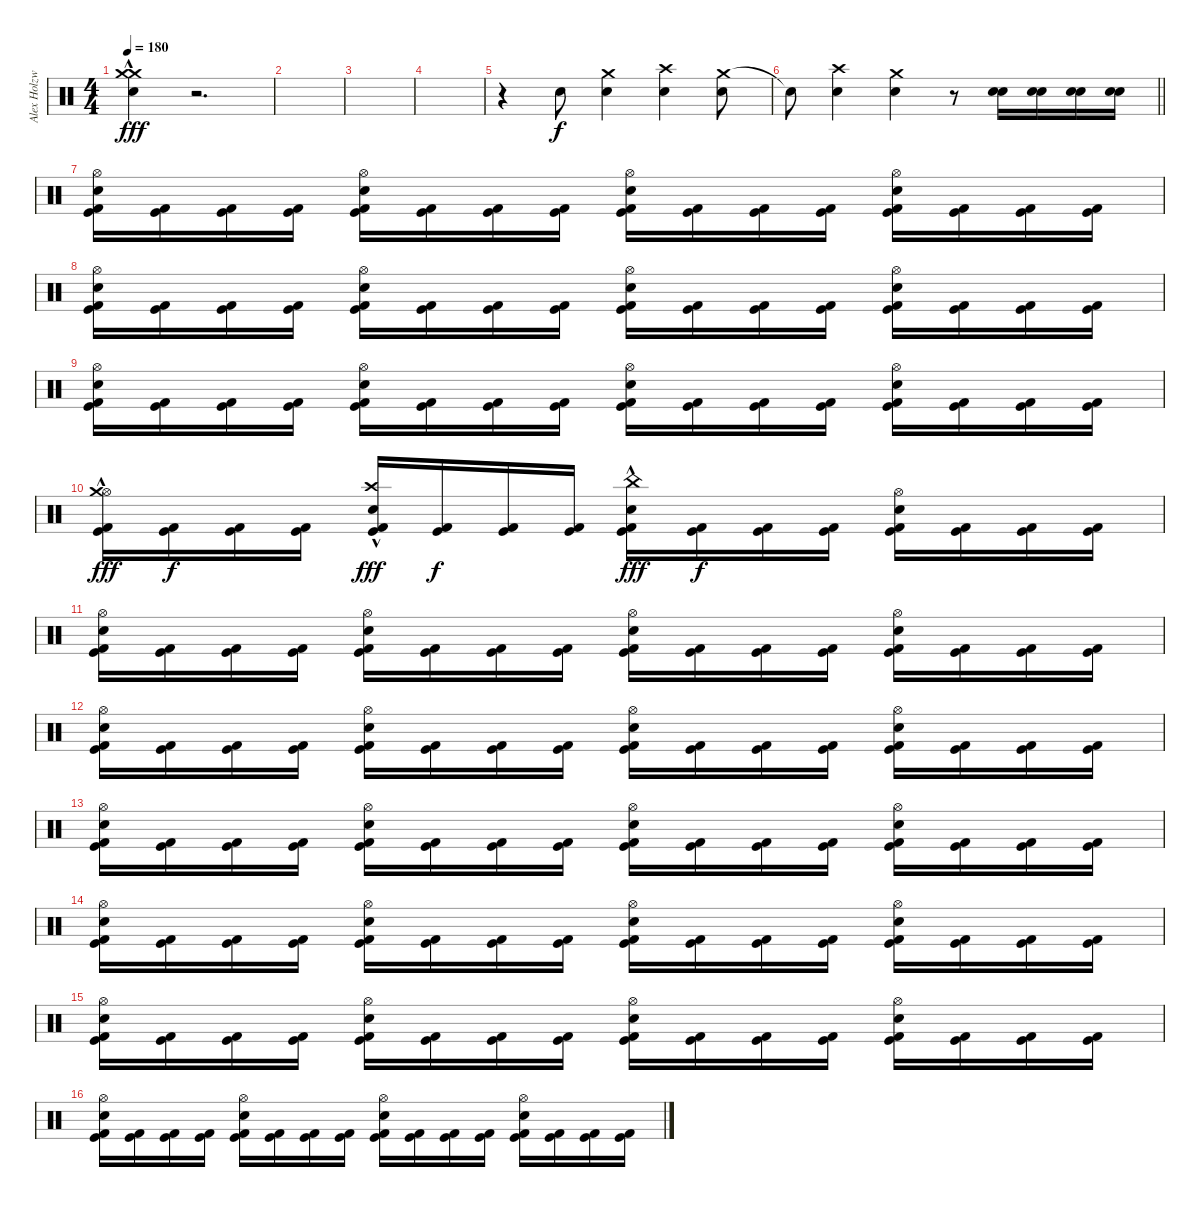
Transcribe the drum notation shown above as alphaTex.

\track ("Alex Holzwarth" "Alex Holzw") {instrument percussion}
\staff {score}
\articulation defaults
\ts (4 4)
\tempo 180
\clef neutral
\ks c
("Crash medium (hit)"{hac} "Snare (hit) 2" "Crash medium (hit)"{hac}).4{dy fff volume 13} r.2{d volume 0} |
|
|
|
r.4 "Snare (hit) 2".8{dy f} ("Crash medium (hit)" "Snare (hit) 2").4 ("Crash high (hit)" "Snare (hit) 2").4 ("Crash medium (hit)" "Snare (hit) 2").8 |
\barLineRight lightlight "Snare (hit)"{t}.8
("Crash high (hit)" "Snare (hit) 2").4 ("Crash medium (hit)" "Snare (hit) 2").4 r.8 ("Snare (hit) 2" "Electric Snare (hit)").16 ("Snare (hit) 2" "Electric Snare (hit)").16 ("Snare (hit) 2" "Electric Snare (hit)").16 ("Snare (hit) 2" "Electric Snare (hit)").16 |
("Kick (hit) 2" "Kick (hit)" "Snare (hit) 2" "Hi-Hat (open)").16 ("Kick (hit) 2" "Kick (hit)").16 ("Kick (hit) 2" "Kick (hit)").16 ("Kick (hit) 2" "Kick (hit)").16 ("Kick (hit) 2" "Kick (hit)" "Hi-Hat (open)" "Snare (hit) 2").16 ("Kick (hit) 2" "Kick (hit)").16 ("Kick (hit) 2" "Kick (hit)").16 ("Kick (hit) 2" "Kick (hit)").16 ("Kick (hit) 2" "Kick (hit)" "Hi-Hat (open)" "Snare (hit) 2").16 ("Kick (hit) 2" "Kick (hit)").16 ("Kick (hit) 2" "Kick (hit)").16 ("Kick (hit) 2" "Kick (hit)").16 ("Kick (hit) 2" "Kick (hit)" "Hi-Hat (open)" "Snare (hit) 2").16 ("Kick (hit) 2" "Kick (hit)").16 ("Kick (hit) 2" "Kick (hit)").16 ("Kick (hit) 2" "Kick (hit)").16 |
("Kick (hit) 2" "Kick (hit)" "Snare (hit) 2" "Hi-Hat (open)").16 ("Kick (hit) 2" "Kick (hit)").16 ("Kick (hit) 2" "Kick (hit)").16 ("Kick (hit) 2" "Kick (hit)").16 ("Kick (hit) 2" "Kick (hit)" "Hi-Hat (open)" "Snare (hit) 2").16 ("Kick (hit) 2" "Kick (hit)").16 ("Kick (hit) 2" "Kick (hit)").16 ("Kick (hit) 2" "Kick (hit)").16 ("Kick (hit) 2" "Kick (hit)" "Hi-Hat (open)" "Snare (hit) 2").16 ("Kick (hit) 2" "Kick (hit)").16 ("Kick (hit) 2" "Kick (hit)").16 ("Kick (hit) 2" "Kick (hit)").16 ("Kick (hit) 2" "Kick (hit)" "Hi-Hat (open)" "Snare (hit) 2").16 ("Kick (hit) 2" "Kick (hit)").16 ("Kick (hit) 2" "Kick (hit)").16 ("Kick (hit) 2" "Kick (hit)").16 |
("Kick (hit) 2" "Kick (hit)" "Snare (hit) 2" "Hi-Hat (open)").16 ("Kick (hit) 2" "Kick (hit)").16 ("Kick (hit) 2" "Kick (hit)").16 ("Kick (hit) 2" "Kick (hit)").16 ("Kick (hit) 2" "Kick (hit)" "Hi-Hat (open)" "Snare (hit) 2").16 ("Kick (hit) 2" "Kick (hit)").16 ("Kick (hit) 2" "Kick (hit)").16 ("Kick (hit) 2" "Kick (hit)").16 ("Kick (hit) 2" "Kick (hit)" "Hi-Hat (open)" "Snare (hit) 2").16 ("Kick (hit) 2" "Kick (hit)").16 ("Kick (hit) 2" "Kick (hit)").16 ("Kick (hit) 2" "Kick (hit)").16 ("Kick (hit) 2" "Kick (hit)" "Hi-Hat (open)" "Snare (hit) 2").16 ("Kick (hit) 2" "Kick (hit)").16 ("Kick (hit) 2" "Kick (hit)").16 ("Kick (hit) 2" "Kick (hit)").16 |
("Kick (hit) 2" "Kick (hit)" "Hi-Hat (open)" "Crash medium (hit)"{hac}).16{dy fff} ("Kick (hit) 2" "Kick (hit)").16{dy f} ("Kick (hit) 2" "Kick (hit)").16 ("Kick (hit) 2" "Kick (hit)").16 ("Kick (hit) 2" "Kick (hit)" "Snare (hit) 2" "Crash high (hit)"{hac}).16{dy fff} ("Kick (hit) 2" "Kick (hit)").16{dy f} ("Kick (hit) 2" "Kick (hit)").16 ("Kick (hit) 2" "Kick (hit)").16 ("Kick (hit) 2" "Kick (hit)" "Snare (hit) 2" "China (hit)"{hac}).16{dy fff} ("Kick (hit) 2" "Kick (hit)").16{dy f} ("Kick (hit) 2" "Kick (hit)").16 ("Kick (hit) 2" "Kick (hit)").16 ("Kick (hit) 2" "Kick (hit)" "Hi-Hat (open)" "Snare (hit) 2").16 ("Kick (hit) 2" "Kick (hit)").16 ("Kick (hit) 2" "Kick (hit)").16 ("Kick (hit) 2" "Kick (hit)").16 |
("Kick (hit) 2" "Kick (hit)" "Snare (hit) 2" "Hi-Hat (open)").16 ("Kick (hit) 2" "Kick (hit)").16 ("Kick (hit) 2" "Kick (hit)").16 ("Kick (hit) 2" "Kick (hit)").16 ("Kick (hit) 2" "Kick (hit)" "Hi-Hat (open)" "Snare (hit) 2").16 ("Kick (hit) 2" "Kick (hit)").16 ("Kick (hit) 2" "Kick (hit)").16 ("Kick (hit) 2" "Kick (hit)").16 ("Kick (hit) 2" "Kick (hit)" "Hi-Hat (open)" "Snare (hit) 2").16 ("Kick (hit) 2" "Kick (hit)").16 ("Kick (hit) 2" "Kick (hit)").16 ("Kick (hit) 2" "Kick (hit)").16 ("Kick (hit) 2" "Kick (hit)" "Hi-Hat (open)" "Snare (hit) 2").16 ("Kick (hit) 2" "Kick (hit)").16 ("Kick (hit) 2" "Kick (hit)").16 ("Kick (hit) 2" "Kick (hit)").16 |
("Kick (hit) 2" "Kick (hit)" "Snare (hit) 2" "Hi-Hat (open)").16 ("Kick (hit) 2" "Kick (hit)").16 ("Kick (hit) 2" "Kick (hit)").16 ("Kick (hit) 2" "Kick (hit)").16 ("Kick (hit) 2" "Kick (hit)" "Hi-Hat (open)" "Snare (hit) 2").16 ("Kick (hit) 2" "Kick (hit)").16 ("Kick (hit) 2" "Kick (hit)").16 ("Kick (hit) 2" "Kick (hit)").16 ("Kick (hit) 2" "Kick (hit)" "Hi-Hat (open)" "Snare (hit) 2").16 ("Kick (hit) 2" "Kick (hit)").16 ("Kick (hit) 2" "Kick (hit)").16 ("Kick (hit) 2" "Kick (hit)").16 ("Kick (hit) 2" "Kick (hit)" "Hi-Hat (open)" "Snare (hit) 2").16 ("Kick (hit) 2" "Kick (hit)").16 ("Kick (hit) 2" "Kick (hit)").16 ("Kick (hit) 2" "Kick (hit)").16 |
("Kick (hit) 2" "Kick (hit)" "Snare (hit) 2" "Hi-Hat (open)").16 ("Kick (hit) 2" "Kick (hit)").16 ("Kick (hit) 2" "Kick (hit)").16 ("Kick (hit) 2" "Kick (hit)").16 ("Kick (hit) 2" "Kick (hit)" "Hi-Hat (open)" "Snare (hit) 2").16 ("Kick (hit) 2" "Kick (hit)").16 ("Kick (hit) 2" "Kick (hit)").16 ("Kick (hit) 2" "Kick (hit)").16 ("Kick (hit) 2" "Kick (hit)" "Hi-Hat (open)" "Snare (hit) 2").16 ("Kick (hit) 2" "Kick (hit)").16 ("Kick (hit) 2" "Kick (hit)").16 ("Kick (hit) 2" "Kick (hit)").16 ("Kick (hit) 2" "Kick (hit)" "Hi-Hat (open)" "Snare (hit) 2").16 ("Kick (hit) 2" "Kick (hit)").16 ("Kick (hit) 2" "Kick (hit)").16 ("Kick (hit) 2" "Kick (hit)").16 |
("Kick (hit) 2" "Kick (hit)" "Snare (hit) 2" "Hi-Hat (open)").16 ("Kick (hit) 2" "Kick (hit)").16 ("Kick (hit) 2" "Kick (hit)").16 ("Kick (hit) 2" "Kick (hit)").16 ("Kick (hit) 2" "Kick (hit)" "Hi-Hat (open)" "Snare (hit) 2").16 ("Kick (hit) 2" "Kick (hit)").16 ("Kick (hit) 2" "Kick (hit)").16 ("Kick (hit) 2" "Kick (hit)").16 ("Kick (hit) 2" "Kick (hit)" "Hi-Hat (open)" "Snare (hit) 2").16 ("Kick (hit) 2" "Kick (hit)").16 ("Kick (hit) 2" "Kick (hit)").16 ("Kick (hit) 2" "Kick (hit)").16 ("Kick (hit) 2" "Kick (hit)" "Hi-Hat (open)" "Snare (hit) 2").16 ("Kick (hit) 2" "Kick (hit)").16 ("Kick (hit) 2" "Kick (hit)").16 ("Kick (hit) 2" "Kick (hit)").16 |
("Kick (hit) 2" "Kick (hit)" "Snare (hit) 2" "Hi-Hat (open)").16 ("Kick (hit) 2" "Kick (hit)").16 ("Kick (hit) 2" "Kick (hit)").16 ("Kick (hit) 2" "Kick (hit)").16 ("Kick (hit) 2" "Kick (hit)" "Hi-Hat (open)" "Snare (hit) 2").16 ("Kick (hit) 2" "Kick (hit)").16 ("Kick (hit) 2" "Kick (hit)").16 ("Kick (hit) 2" "Kick (hit)").16 ("Kick (hit) 2" "Kick (hit)" "Hi-Hat (open)" "Snare (hit) 2").16 ("Kick (hit) 2" "Kick (hit)").16 ("Kick (hit) 2" "Kick (hit)").16 ("Kick (hit) 2" "Kick (hit)").16 ("Kick (hit) 2" "Kick (hit)" "Hi-Hat (open)" "Snare (hit) 2").16 ("Kick (hit) 2" "Kick (hit)").16 ("Kick (hit) 2" "Kick (hit)").16 ("Kick (hit) 2" "Kick (hit)").16 |
("Kick (hit) 2" "Kick (hit)" "Snare (hit) 2" "Hi-Hat (open)").16 ("Kick (hit) 2" "Kick (hit)").16 ("Kick (hit) 2" "Kick (hit)").16 ("Kick (hit) 2" "Kick (hit)").16 ("Kick (hit) 2" "Kick (hit)" "Hi-Hat (open)" "Snare (hit) 2").16 ("Kick (hit) 2" "Kick (hit)").16 ("Kick (hit) 2" "Kick (hit)").16 ("Kick (hit) 2" "Kick (hit)").16 ("Kick (hit) 2" "Kick (hit)" "Hi-Hat (open)" "Snare (hit) 2").16 ("Kick (hit) 2" "Kick (hit)").16 ("Kick (hit) 2" "Kick (hit)").16 ("Kick (hit) 2" "Kick (hit)").16 ("Kick (hit) 2" "Kick (hit)" "Hi-Hat (open)" "Snare (hit) 2").16 ("Kick (hit) 2" "Kick (hit)").16 ("Kick (hit) 2" "Kick (hit)").16 ("Kick (hit) 2" "Kick (hit)").16
